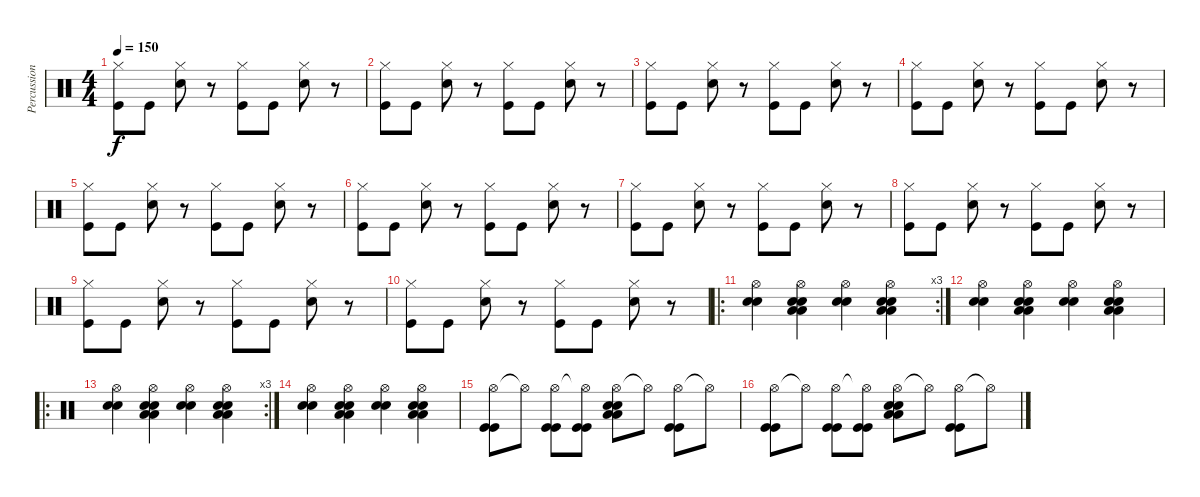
\track ("Percussion" "Percussion") {instrument percussion}
\staff {score}
\articulation defaults
\ts (4 4)
\tempo 150
\clef neutral
\ks c
("Hi-Hat (closed)" "Kick (hit)").8{dy f} "Kick (hit)".8 ("Hi-Hat (closed)" "Electric Snare (hit)").8 r.8 ("Hi-Hat (closed)" "Kick (hit)").8 "Kick (hit)".8 ("Hi-Hat (closed)" "Electric Snare (hit)").8 r.8 |
("Hi-Hat (closed)" "Kick (hit)").8 "Kick (hit)".8 ("Hi-Hat (closed)" "Electric Snare (hit)").8 r.8 ("Hi-Hat (closed)" "Kick (hit)").8 "Kick (hit)".8 ("Hi-Hat (closed)" "Electric Snare (hit)").8 r.8 |
("Hi-Hat (closed)" "Kick (hit)").8 "Kick (hit)".8 ("Hi-Hat (closed)" "Electric Snare (hit)").8 r.8 ("Hi-Hat (closed)" "Kick (hit)").8 "Kick (hit)".8 ("Hi-Hat (closed)" "Electric Snare (hit)").8 r.8 |
("Hi-Hat (closed)" "Kick (hit)").8 "Kick (hit)".8 ("Hi-Hat (closed)" "Electric Snare (hit)").8 r.8 ("Hi-Hat (closed)" "Kick (hit)").8 "Kick (hit)".8 ("Hi-Hat (closed)" "Electric Snare (hit)").8 r.8 |
("Hi-Hat (closed)" "Kick (hit)").8 "Kick (hit)".8 ("Hi-Hat (closed)" "Electric Snare (hit)").8 r.8 ("Hi-Hat (closed)" "Kick (hit)").8 "Kick (hit)".8 ("Hi-Hat (closed)" "Electric Snare (hit)").8 r.8 |
("Hi-Hat (closed)" "Kick (hit)").8 "Kick (hit)".8 ("Hi-Hat (closed)" "Electric Snare (hit)").8 r.8 ("Hi-Hat (closed)" "Kick (hit)").8 "Kick (hit)".8 ("Hi-Hat (closed)" "Electric Snare (hit)").8 r.8 |
("Hi-Hat (closed)" "Kick (hit)").8 "Kick (hit)".8 ("Hi-Hat (closed)" "Electric Snare (hit)").8 r.8 ("Hi-Hat (closed)" "Kick (hit)").8 "Kick (hit)".8 ("Hi-Hat (closed)" "Electric Snare (hit)").8 r.8 |
("Hi-Hat (closed)" "Kick (hit)").8 "Kick (hit)".8 ("Hi-Hat (closed)" "Electric Snare (hit)").8 r.8 ("Hi-Hat (closed)" "Kick (hit)").8 "Kick (hit)".8 ("Hi-Hat (closed)" "Electric Snare (hit)").8 r.8 |
("Hi-Hat (closed)" "Kick (hit)").8 "Kick (hit)".8 ("Hi-Hat (closed)" "Electric Snare (hit)").8 r.8 ("Hi-Hat (closed)" "Kick (hit)").8 "Kick (hit)".8 ("Hi-Hat (closed)" "Electric Snare (hit)").8 r.8 |
("Hi-Hat (closed)" "Kick (hit)").8 "Kick (hit)".8 ("Hi-Hat (closed)" "Electric Snare (hit)").8 r.8 ("Hi-Hat (closed)" "Kick (hit)").8 "Kick (hit)".8 ("Hi-Hat (closed)" "Electric Snare (hit)").8 r.8 |
\ro
\rc 3
("Hi-Hat (open)" "Electric Snare (hit)" "Electric Snare (hit)").4 ("Hi-Hat (open)" "Electric Snare (hit)" "Electric Snare (hit)" "Low Tom (hit)" "Low Tom (hit)").4 ("Hi-Hat (open)" "Electric Snare (hit)" "Electric Snare (hit)").4 ("Hi-Hat (open)" "Electric Snare (hit)" "Electric Snare (hit)" "Low Tom (hit)" "Low Tom (hit)").4 |
("Hi-Hat (open)" "Electric Snare (hit)" "Electric Snare (hit)").4 ("Hi-Hat (open)" "Electric Snare (hit)" "Electric Snare (hit)" "Low Tom (hit)" "Low Tom (hit)").4 ("Hi-Hat (open)" "Electric Snare (hit)" "Electric Snare (hit)").4 ("Hi-Hat (open)" "Electric Snare (hit)" "Electric Snare (hit)" "Low Tom (hit)" "Low Tom (hit)").4 |
\ro
\rc 3
("Hi-Hat (open)" "Electric Snare (hit)" "Electric Snare (hit)").4 ("Hi-Hat (open)" "Electric Snare (hit)" "Electric Snare (hit)" "Low Tom (hit)" "Low Tom (hit)").4 ("Hi-Hat (open)" "Electric Snare (hit)" "Electric Snare (hit)").4 ("Hi-Hat (open)" "Electric Snare (hit)" "Electric Snare (hit)" "Low Tom (hit)" "Low Tom (hit)").4 |
("Hi-Hat (open)" "Electric Snare (hit)" "Electric Snare (hit)").4 ("Hi-Hat (open)" "Electric Snare (hit)" "Electric Snare (hit)" "Low Tom (hit)" "Low Tom (hit)").4 ("Hi-Hat (open)" "Electric Snare (hit)" "Electric Snare (hit)").4 ("Hi-Hat (open)" "Electric Snare (hit)" "Electric Snare (hit)" "Low Tom (hit)" "Low Tom (hit)").4 |
("Hi-Hat (open)" "Kick (hit)" "Kick (hit)").8 "Hi-Hat (open)"{t}.8 ("Hi-Hat (open)" "Kick (hit)" "Kick (hit)").8 ("Hi-Hat (open)"{t} "Kick (hit)" "Kick (hit)").8 ("Hi-Hat (open)" "Electric Snare (hit)" "Electric Snare (hit)" "Low Tom (hit)" "Low Tom (hit)").8 "Hi-Hat (open)"{t}.8 ("Hi-Hat (open)" "Kick (hit)" "Kick (hit)").8 "Hi-Hat (open)"{t}.8 |
("Hi-Hat (open)" "Kick (hit)" "Kick (hit)").8 "Hi-Hat (open)"{t}.8 ("Hi-Hat (open)" "Kick (hit)" "Kick (hit)").8 ("Hi-Hat (open)"{t} "Kick (hit)" "Kick (hit)").8 ("Hi-Hat (open)" "Electric Snare (hit)" "Electric Snare (hit)" "Low Tom (hit)" "Low Tom (hit)").8 "Hi-Hat (open)"{t}.8 ("Hi-Hat (open)" "Kick (hit)" "Kick (hit)").8 "Hi-Hat (open)"{t}.8
